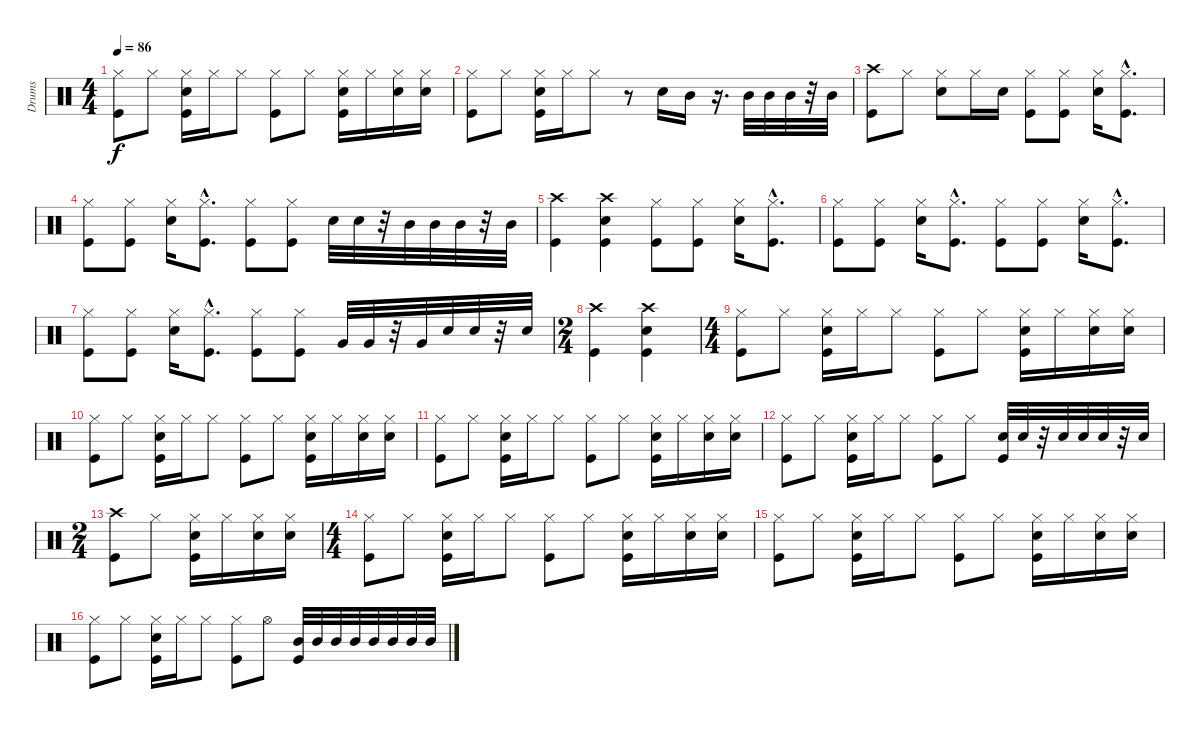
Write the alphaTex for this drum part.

\track ("Drums" "Drums") {instrument percussion}
\staff {score}
\articulation defaults
\ts (4 4)
\tempo 86
\clef neutral
\ks c
("Hi-Hat (closed)" "Kick (hit)").8{dy f} "Hi-Hat (closed)".8 ("Kick (hit)" "Hi-Hat (closed)" "Snare (hit) 2").16 "Hi-Hat (closed)".16 "Hi-Hat (closed)".8 ("Hi-Hat (closed)" "Kick (hit)").8 "Hi-Hat (closed)".8 ("Kick (hit)" "Hi-Hat (closed)" "Snare (hit) 2").16 "Hi-Hat (closed)".16 ("Hi-Hat (closed)" "Snare (hit) 2").16 ("Hi-Hat (closed)" "Snare (hit) 2").16 |
("Hi-Hat (closed)" "Kick (hit)").8 "Hi-Hat (closed)".8 ("Kick (hit)" "Hi-Hat (closed)" "Snare (hit) 2").16 "Hi-Hat (closed)".16 "Hi-Hat (closed)".8 r.8 "Snare (hit) 2".16 "Mid Tom (hit)".16 r.16{d} "Mid Tom (hit)".32 "Mid Tom (hit)".32 "Mid Tom (hit)".32 r.32 "Mid Tom (hit)".32 |
("Crash high (hit)" "Kick (hit)").8 "Hi-Hat (closed)".8 ("Snare (hit) 2" "Hi-Hat (closed)").8 "Hi-Hat (closed)".16 "Snare (hit) 2".16 ("Hi-Hat (closed)" "Kick (hit)").8 ("Hi-Hat (closed)" "Kick (hit)").8 ("Hi-Hat (closed)" "Snare (hit) 2").16 ("Hi-Hat (closed)"{hac} "Kick (hit)"{hac}).8{d} |
("Hi-Hat (closed)" "Kick (hit)").8 ("Hi-Hat (closed)" "Kick (hit)").8 ("Hi-Hat (closed)" "Snare (hit) 2").16 ("Hi-Hat (closed)"{hac} "Kick (hit)"{hac}).8{d} ("Hi-Hat (closed)" "Kick (hit)").8 ("Hi-Hat (closed)" "Kick (hit)").8 "Snare (hit) 2".32 "Snare (hit) 2".32 r.32 "Mid Tom (hit)".32 "Mid Tom (hit)".32 "Mid Tom (hit)".32 r.32 "Mid Tom (hit)".32 |
("Crash high (hit)" "Kick (hit)").4 ("Crash high (hit)" "Snare (hit) 2" "Kick (hit)").4 ("Kick (hit)" "Hi-Hat (closed)").8 ("Kick (hit)" "Hi-Hat (closed)").8 ("Hi-Hat (closed)" "Snare (hit) 2").16 ("Hi-Hat (closed)"{hac} "Kick (hit)"{hac}).8{d} |
("Kick (hit)" "Hi-Hat (closed)").8 ("Hi-Hat (closed)" "Kick (hit)").8 ("Snare (hit) 2" "Hi-Hat (closed)").16 ("Hi-Hat (closed)"{hac} "Kick (hit)"{hac}).8{d} ("Hi-Hat (closed)" "Kick (hit)").8 ("Hi-Hat (closed)" "Kick (hit)").8 ("Snare (hit) 2" "Hi-Hat (closed)").16 ("Hi-Hat (closed)"{hac} "Kick (hit)"{hac}).8{d} |
("Hi-Hat (closed)" "Kick (hit)").8 ("Hi-Hat (closed)" "Kick (hit)").8 ("Hi-Hat (closed)" "Snare (hit) 2").16 ("Hi-Hat (closed)"{hac} "Kick (hit)"{hac}).8{d} ("Kick (hit)" "Hi-Hat (closed)").8 ("Kick (hit)" "Hi-Hat (closed)").8 "Very Low Tom (hit)".32 "Very Low Tom (hit)".32 r.32 "Very Low Tom (hit)".32 "Snare (hit) 2".32 "Snare (hit) 2".32 r.32 "Snare (hit) 2".32 |
\ts (2 4)
("Crash high (hit)" "Kick (hit)").4 ("Kick (hit)" "Snare (hit) 2" "Crash high (hit)").4 |
\ts (4 4)
("Kick (hit)" "Hi-Hat (closed)").8 "Hi-Hat (closed)".8 ("Kick (hit)" "Hi-Hat (closed)" "Snare (hit) 2").16 "Hi-Hat (closed)".16 "Hi-Hat (closed)".8 ("Hi-Hat (closed)" "Kick (hit)").8 "Hi-Hat (closed)".8 ("Kick (hit)" "Hi-Hat (closed)" "Snare (hit) 2").16 "Hi-Hat (closed)".16 ("Hi-Hat (closed)" "Snare (hit) 2").16 ("Hi-Hat (closed)" "Snare (hit) 2").16 |
("Hi-Hat (closed)" "Kick (hit)").8 "Hi-Hat (closed)".8 ("Kick (hit)" "Hi-Hat (closed)" "Snare (hit) 2").16 "Hi-Hat (closed)".16 "Hi-Hat (closed)".8 ("Hi-Hat (closed)" "Kick (hit)").8 "Hi-Hat (closed)".8 ("Kick (hit)" "Hi-Hat (closed)" "Snare (hit) 2").16 "Hi-Hat (closed)".16 ("Hi-Hat (closed)" "Snare (hit) 2").16 ("Hi-Hat (closed)" "Snare (hit) 2").16 |
("Hi-Hat (closed)" "Kick (hit)").8 "Hi-Hat (closed)".8 ("Kick (hit)" "Hi-Hat (closed)" "Snare (hit) 2").16 "Hi-Hat (closed)".16 "Hi-Hat (closed)".8 ("Hi-Hat (closed)" "Kick (hit)").8 "Hi-Hat (closed)".8 ("Kick (hit)" "Hi-Hat (closed)" "Snare (hit) 2").16 "Hi-Hat (closed)".16 ("Hi-Hat (closed)" "Snare (hit) 2").16 ("Hi-Hat (closed)" "Snare (hit) 2").16 |
("Hi-Hat (closed)" "Kick (hit)").8 "Hi-Hat (closed)".8 ("Hi-Hat (closed)" "Snare (hit) 2" "Kick (hit)").16 "Hi-Hat (closed)".16 "Hi-Hat (closed)".8 ("Hi-Hat (closed)" "Kick (hit)").8 "Hi-Hat (closed)".8 ("Snare (hit) 2" "Kick (hit)").32 "Snare (hit) 2".32 r.32 "Snare (hit) 2".32 "Snare (hit) 2".32 "Snare (hit) 2".32 r.32 "Snare (hit) 2".32 |
\ts (2 4)
("Crash high (hit)" "Kick (hit)").8 "Hi-Hat (closed)".8 ("Hi-Hat (closed)" "Snare (hit) 2" "Kick (hit)").16 "Hi-Hat (closed)".16 ("Hi-Hat (closed)" "Snare (hit) 2").16 ("Hi-Hat (closed)" "Snare (hit) 2").16 |
\ts (4 4)
("Hi-Hat (closed)" "Kick (hit)").8 "Hi-Hat (closed)".8 ("Hi-Hat (closed)" "Snare (hit) 2" "Kick (hit)").16 "Hi-Hat (closed)".16 "Hi-Hat (closed)".8 ("Hi-Hat (closed)" "Kick (hit)").8 "Hi-Hat (closed)".8 ("Hi-Hat (closed)" "Snare (hit) 2" "Kick (hit)").16 "Hi-Hat (closed)".16 ("Hi-Hat (closed)" "Snare (hit) 2").16 ("Hi-Hat (closed)" "Snare (hit) 2").16 |
("Kick (hit)" "Hi-Hat (closed)").8 "Hi-Hat (closed)".8 ("Hi-Hat (closed)" "Snare (hit) 2" "Kick (hit)").16 "Hi-Hat (closed)".16 "Hi-Hat (closed)".8 ("Hi-Hat (closed)" "Kick (hit)").8 "Hi-Hat (closed)".8 ("Hi-Hat (closed)" "Snare (hit) 2" "Kick (hit)").16 "Hi-Hat (closed)".16 ("Hi-Hat (closed)" "Snare (hit) 2").16 ("Hi-Hat (closed)" "Snare (hit) 2").16 |
("Hi-Hat (closed)" "Kick (hit)").8 "Hi-Hat (closed)".8 ("Hi-Hat (closed)" "Snare (hit) 2" "Kick (hit)").16 "Hi-Hat (closed)".16 "Hi-Hat (closed)".8 ("Hi-Hat (closed)" "Kick (hit)").8 "Hi-Hat (open)".8 ("Kick (hit)" "Mid Tom (hit)").32 "Mid Tom (hit)".32 "Mid Tom (hit)".32 "Mid Tom (hit)".32 "Mid Tom (hit)".32 "Mid Tom (hit)".32 "Mid Tom (hit)".32 "Mid Tom (hit)".32
